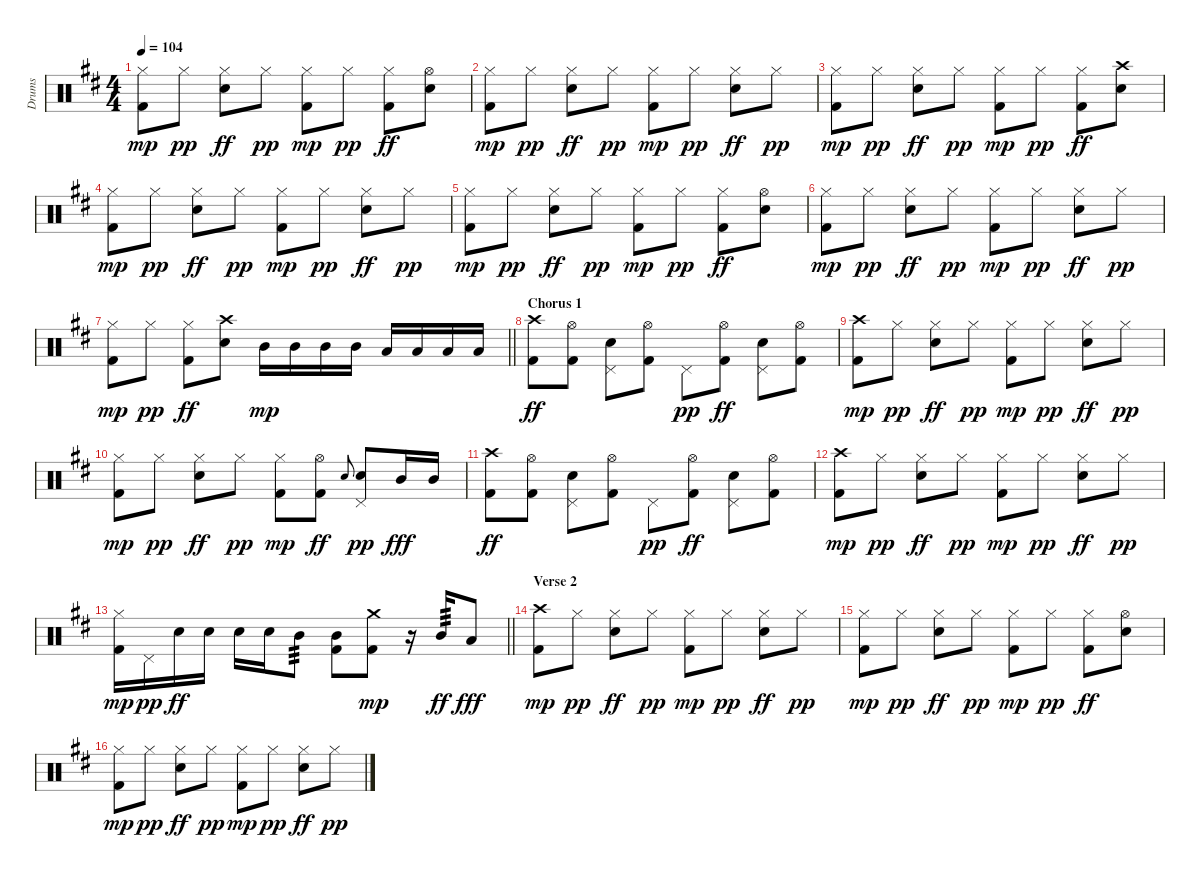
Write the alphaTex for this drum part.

\track ("Drums" "Drums") {instrument percussion}
\staff {score}
\articulation defaults
\ts (4 4)
\tempo 104
\clef neutral
\ks bminor
("Hi-Hat (closed)" "Kick (hit) 2").8{dy mp} "Hi-Hat (closed)".8{dy pp} ("Hi-Hat (closed)" "Electric Snare (hit)").8{dy ff} "Hi-Hat (closed)".8{dy pp} ("Hi-Hat (closed)" "Kick (hit) 2").8{dy mp} "Hi-Hat (closed)".8{dy pp} ("Hi-Hat (closed)" "Kick (hit) 2").8{dy ff} ("Hi-Hat (open)" "Electric Snare (hit)").8 |
("Hi-Hat (closed)" "Kick (hit) 2").8{dy mp} "Hi-Hat (closed)".8{dy pp} ("Hi-Hat (closed)" "Electric Snare (hit)").8{dy ff} "Hi-Hat (closed)".8{dy pp} ("Hi-Hat (closed)" "Kick (hit) 2").8{dy mp} "Hi-Hat (closed)".8{dy pp} ("Hi-Hat (closed)" "Electric Snare (hit)").8{dy ff} "Hi-Hat (closed)".8{dy pp} |
("Hi-Hat (closed)" "Kick (hit) 2").8{dy mp} "Hi-Hat (closed)".8{dy pp} ("Hi-Hat (closed)" "Electric Snare (hit)").8{dy ff} "Hi-Hat (closed)".8{dy pp} ("Hi-Hat (closed)" "Kick (hit) 2").8{dy mp} "Hi-Hat (closed)".8{dy pp} ("Hi-Hat (closed)" "Kick (hit) 2").8{dy ff} ("Crash high (hit)" "Electric Snare (hit)").8 |
("Hi-Hat (closed)" "Kick (hit) 2").8{dy mp} "Hi-Hat (closed)".8{dy pp} ("Hi-Hat (closed)" "Electric Snare (hit)").8{dy ff} "Hi-Hat (closed)".8{dy pp} ("Hi-Hat (closed)" "Kick (hit) 2").8{dy mp} "Hi-Hat (closed)".8{dy pp} ("Hi-Hat (closed)" "Electric Snare (hit)").8{dy ff} "Hi-Hat (closed)".8{dy pp} |
("Hi-Hat (closed)" "Kick (hit) 2").8{dy mp} "Hi-Hat (closed)".8{dy pp} ("Hi-Hat (closed)" "Electric Snare (hit)").8{dy ff} "Hi-Hat (closed)".8{dy pp} ("Hi-Hat (closed)" "Kick (hit) 2").8{dy mp} "Hi-Hat (closed)".8{dy pp} ("Hi-Hat (closed)" "Kick (hit) 2").8{dy ff} ("Hi-Hat (open)" "Electric Snare (hit)").8 |
("Hi-Hat (closed)" "Kick (hit) 2").8{dy mp} "Hi-Hat (closed)".8{dy pp} ("Hi-Hat (closed)" "Electric Snare (hit)").8{dy ff} "Hi-Hat (closed)".8{dy pp} ("Hi-Hat (closed)" "Kick (hit) 2").8{dy mp} "Hi-Hat (closed)".8{dy pp} ("Hi-Hat (closed)" "Electric Snare (hit)").8{dy ff} "Hi-Hat (closed)".8{dy pp} |
\barLineRight lightlight
("Hi-Hat (closed)" "Kick (hit) 2").8{dy mp} "Hi-Hat (closed)".8{dy pp} ("Hi-Hat (closed)" "Kick (hit) 2").8{dy ff} ("Crash high (hit)" "Electric Snare (hit)").8 "Mid Tom (hit)".16{dy mp} "Mid Tom (hit)".16 "Mid Tom (hit)".16 "Mid Tom (hit)".16 "Low Tom (hit)".16 "Low Tom (hit)".16 "Low Tom (hit)".16 "Low Tom (hit)".16 |
\section ("" "Chorus 1")
("Crash high (hit)" "Kick (hit) 2").8{dy ff} ("Hi-Hat (open)" "Kick (hit) 2").8 ("Pedal Hi-Hat (hit)" "Electric Snare (hit)").8 ("Hi-Hat (open)" "Kick (hit) 2").8 "Pedal Hi-Hat (hit)".8{dy pp} ("Hi-Hat (open)" "Kick (hit) 2").8{dy ff} ("Pedal Hi-Hat (hit)" "Electric Snare (hit)").8 ("Hi-Hat (open)" "Kick (hit) 2").8 |
("Crash high (hit)" "Kick (hit) 2").8{dy mp} "Hi-Hat (closed)".8{dy pp} ("Hi-Hat (closed)" "Electric Snare (hit)").8{dy ff} "Hi-Hat (closed)".8{dy pp} ("Hi-Hat (closed)" "Kick (hit) 2").8{dy mp} "Hi-Hat (closed)".8{dy pp} ("Hi-Hat (closed)" "Electric Snare (hit)").8{dy ff} "Hi-Hat (closed)".8{dy pp} |
("Hi-Hat (closed)" "Kick (hit) 2").8{dy mp} "Hi-Hat (closed)".8{dy pp} ("Hi-Hat (closed)" "Electric Snare (hit)").8{dy ff} "Hi-Hat (closed)".8{dy pp} ("Hi-Hat (closed)" "Kick (hit) 2").8{dy mp} ("Hi-Hat (open)" "Kick (hit) 2").8{dy ff} "Electric Snare (hit)".8{gr onbeat} ("Electric Snare (hit)" "Pedal Hi-Hat (hit)").8{dy pp} "Mid Tom (hit)".16{dy fff} "Mid Tom (hit)".16 |
("Crash high (hit)" "Kick (hit) 2").8{dy ff} ("Hi-Hat (open)" "Kick (hit) 2").8 ("Pedal Hi-Hat (hit)" "Electric Snare (hit)").8 ("Hi-Hat (open)" "Kick (hit) 2").8 "Pedal Hi-Hat (hit)".8{dy pp} ("Hi-Hat (open)" "Kick (hit) 2").8{dy ff} ("Pedal Hi-Hat (hit)" "Electric Snare (hit)").8 ("Hi-Hat (open)" "Kick (hit) 2").8 |
("Crash high (hit)" "Kick (hit) 2").8{dy mp} "Hi-Hat (closed)".8{dy pp} ("Hi-Hat (closed)" "Electric Snare (hit)").8{dy ff} "Hi-Hat (closed)".8{dy pp} ("Hi-Hat (closed)" "Kick (hit) 2").8{dy mp} "Hi-Hat (closed)".8{dy pp} ("Hi-Hat (closed)" "Electric Snare (hit)").8{dy ff} "Hi-Hat (closed)".8{dy pp} |
\barLineRight lightlight
("Hi-Hat (closed)" "Kick (hit) 2").16{dy mp} "Pedal Hi-Hat (hit)".16{dy pp} "Electric Snare (hit)".16{dy ff} "Electric Snare (hit)".16 "Electric Snare (hit)".16 "Electric Snare (hit)".16 "Mid Tom (hit)".8{tp 3} ("Kick (hit) 2" "Mid Tom (hit)").8 ("Kick (hit) 2" "Crash medium (hit)").8{dy mp} r.16 "Mid Tom (hit)".16{tp 3 dy ff} "Low Tom (hit)".8{dy fff} |
\section ("" "Verse 2")
("Crash high (hit)" "Kick (hit) 2").8{dy mp} "Hi-Hat (closed)".8{dy pp} ("Hi-Hat (closed)" "Electric Snare (hit)").8{dy ff} "Hi-Hat (closed)".8{dy pp} ("Hi-Hat (closed)" "Kick (hit) 2").8{dy mp} "Hi-Hat (closed)".8{dy pp} ("Hi-Hat (closed)" "Electric Snare (hit)").8{dy ff} "Hi-Hat (closed)".8{dy pp} |
("Hi-Hat (closed)" "Kick (hit) 2").8{dy mp} "Hi-Hat (closed)".8{dy pp} ("Hi-Hat (closed)" "Electric Snare (hit)").8{dy ff} "Hi-Hat (closed)".8{dy pp} ("Hi-Hat (closed)" "Kick (hit) 2").8{dy mp} "Hi-Hat (closed)".8{dy pp} ("Hi-Hat (closed)" "Kick (hit) 2").8{dy ff} ("Hi-Hat (open)" "Electric Snare (hit)").8 |
("Hi-Hat (closed)" "Kick (hit) 2").8{dy mp} "Hi-Hat (closed)".8{dy pp} ("Hi-Hat (closed)" "Electric Snare (hit)").8{dy ff} "Hi-Hat (closed)".8{dy pp} ("Hi-Hat (closed)" "Kick (hit) 2").8{dy mp} "Hi-Hat (closed)".8{dy pp} ("Hi-Hat (closed)" "Electric Snare (hit)").8{dy ff} "Hi-Hat (closed)".8{dy pp}
